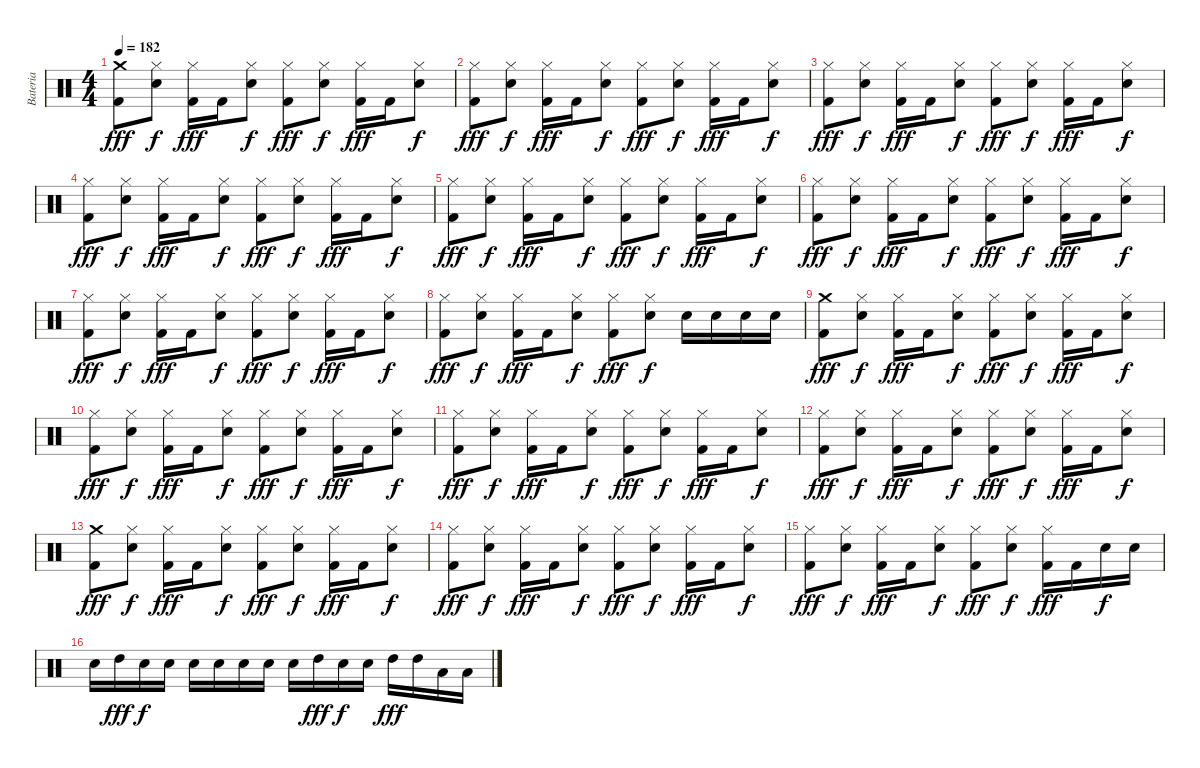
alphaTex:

\track ("Bateria" "Bateria") {instrument percussion}
\staff {score}
\articulation defaults
\ts (4 4)
\tempo 182
\clef neutral
\ks c
("Crash medium (hit)" "Kick (hit) 2").8{dy fff} ("Hi-Hat (closed)" "Electric Snare (hit)").8{dy f} ("Hi-Hat (closed)" "Kick (hit) 2").16{dy fff} "Kick (hit) 2".16 ("Hi-Hat (closed)" "Electric Snare (hit)").8{dy f} ("Hi-Hat (closed)" "Kick (hit) 2").8{dy fff} ("Hi-Hat (closed)" "Electric Snare (hit)").8{dy f} ("Hi-Hat (closed)" "Kick (hit) 2").16{dy fff} "Kick (hit) 2".16 ("Hi-Hat (closed)" "Electric Snare (hit)").8{dy f} |
("Hi-Hat (closed)" "Kick (hit) 2").8{dy fff} ("Hi-Hat (closed)" "Electric Snare (hit)").8{dy f} ("Hi-Hat (closed)" "Kick (hit) 2").16{dy fff} "Kick (hit) 2".16 ("Hi-Hat (closed)" "Electric Snare (hit)").8{dy f} ("Hi-Hat (closed)" "Kick (hit) 2").8{dy fff} ("Hi-Hat (closed)" "Electric Snare (hit)").8{dy f} ("Hi-Hat (closed)" "Kick (hit) 2").16{dy fff} "Kick (hit) 2".16 ("Hi-Hat (closed)" "Electric Snare (hit)").8{dy f} |
("Hi-Hat (closed)" "Kick (hit) 2").8{dy fff} ("Hi-Hat (closed)" "Electric Snare (hit)").8{dy f} ("Hi-Hat (closed)" "Kick (hit) 2").16{dy fff} "Kick (hit) 2".16 ("Hi-Hat (closed)" "Electric Snare (hit)").8{dy f} ("Hi-Hat (closed)" "Kick (hit) 2").8{dy fff} ("Hi-Hat (closed)" "Electric Snare (hit)").8{dy f} ("Hi-Hat (closed)" "Kick (hit) 2").16{dy fff} "Kick (hit) 2".16 ("Hi-Hat (closed)" "Electric Snare (hit)").8{dy f} |
("Hi-Hat (closed)" "Kick (hit) 2").8{dy fff} ("Hi-Hat (closed)" "Electric Snare (hit)").8{dy f} ("Hi-Hat (closed)" "Kick (hit) 2").16{dy fff} "Kick (hit) 2".16 ("Hi-Hat (closed)" "Electric Snare (hit)").8{dy f} ("Hi-Hat (closed)" "Kick (hit) 2").8{dy fff} ("Hi-Hat (closed)" "Electric Snare (hit)").8{dy f} ("Hi-Hat (closed)" "Kick (hit) 2").16{dy fff} "Kick (hit) 2".16 ("Hi-Hat (closed)" "Electric Snare (hit)").8{dy f} |
("Hi-Hat (closed)" "Kick (hit) 2").8{dy fff} ("Hi-Hat (closed)" "Electric Snare (hit)").8{dy f} ("Hi-Hat (closed)" "Kick (hit) 2").16{dy fff} "Kick (hit) 2".16 ("Hi-Hat (closed)" "Electric Snare (hit)").8{dy f} ("Hi-Hat (closed)" "Kick (hit) 2").8{dy fff} ("Hi-Hat (closed)" "Electric Snare (hit)").8{dy f} ("Hi-Hat (closed)" "Kick (hit) 2").16{dy fff} "Kick (hit) 2".16 ("Hi-Hat (closed)" "Electric Snare (hit)").8{dy f} |
("Hi-Hat (closed)" "Kick (hit) 2").8{dy fff} ("Hi-Hat (closed)" "Electric Snare (hit)").8{dy f} ("Hi-Hat (closed)" "Kick (hit) 2").16{dy fff} "Kick (hit) 2".16 ("Hi-Hat (closed)" "Electric Snare (hit)").8{dy f} ("Hi-Hat (closed)" "Kick (hit) 2").8{dy fff} ("Hi-Hat (closed)" "Electric Snare (hit)").8{dy f} ("Hi-Hat (closed)" "Kick (hit) 2").16{dy fff} "Kick (hit) 2".16 ("Hi-Hat (closed)" "Electric Snare (hit)").8{dy f} |
("Hi-Hat (closed)" "Kick (hit) 2").8{dy fff} ("Hi-Hat (closed)" "Electric Snare (hit)").8{dy f} ("Hi-Hat (closed)" "Kick (hit) 2").16{dy fff} "Kick (hit) 2".16 ("Hi-Hat (closed)" "Electric Snare (hit)").8{dy f} ("Hi-Hat (closed)" "Kick (hit) 2").8{dy fff} ("Hi-Hat (closed)" "Electric Snare (hit)").8{dy f} ("Hi-Hat (closed)" "Kick (hit) 2").16{dy fff} "Kick (hit) 2".16 ("Hi-Hat (closed)" "Electric Snare (hit)").8{dy f} |
("Hi-Hat (closed)" "Kick (hit) 2").8{dy fff} ("Hi-Hat (closed)" "Electric Snare (hit)").8{dy f} ("Hi-Hat (closed)" "Kick (hit) 2").16{dy fff} "Kick (hit) 2".16 ("Hi-Hat (closed)" "Electric Snare (hit)").8{dy f} ("Hi-Hat (closed)" "Kick (hit) 2").8{dy fff} ("Hi-Hat (closed)" "Electric Snare (hit)").8{dy f} "Electric Snare (hit)".16 "Electric Snare (hit)".16 "Electric Snare (hit)".16 "Electric Snare (hit)".16 |
("Crash medium (hit)" "Kick (hit) 2").8{dy fff} ("Hi-Hat (closed)" "Electric Snare (hit)").8{dy f} ("Hi-Hat (closed)" "Kick (hit) 2").16{dy fff} "Kick (hit) 2".16 ("Hi-Hat (closed)" "Electric Snare (hit)").8{dy f} ("Hi-Hat (closed)" "Kick (hit) 2").8{dy fff} ("Hi-Hat (closed)" "Electric Snare (hit)").8{dy f} ("Hi-Hat (closed)" "Kick (hit) 2").16{dy fff} "Kick (hit) 2".16 ("Hi-Hat (closed)" "Electric Snare (hit)").8{dy f} |
("Hi-Hat (closed)" "Kick (hit) 2").8{dy fff} ("Hi-Hat (closed)" "Electric Snare (hit)").8{dy f} ("Hi-Hat (closed)" "Kick (hit) 2").16{dy fff} "Kick (hit) 2".16 ("Hi-Hat (closed)" "Electric Snare (hit)").8{dy f} ("Hi-Hat (closed)" "Kick (hit) 2").8{dy fff} ("Hi-Hat (closed)" "Electric Snare (hit)").8{dy f} ("Hi-Hat (closed)" "Kick (hit) 2").16{dy fff} "Kick (hit) 2".16 ("Hi-Hat (closed)" "Electric Snare (hit)").8{dy f} |
("Hi-Hat (closed)" "Kick (hit) 2").8{dy fff} ("Hi-Hat (closed)" "Electric Snare (hit)").8{dy f} ("Hi-Hat (closed)" "Kick (hit) 2").16{dy fff} "Kick (hit) 2".16 ("Hi-Hat (closed)" "Electric Snare (hit)").8{dy f} ("Hi-Hat (closed)" "Kick (hit) 2").8{dy fff} ("Hi-Hat (closed)" "Electric Snare (hit)").8{dy f} ("Hi-Hat (closed)" "Kick (hit) 2").16{dy fff} "Kick (hit) 2".16 ("Hi-Hat (closed)" "Electric Snare (hit)").8{dy f} |
("Hi-Hat (closed)" "Kick (hit) 2").8{dy fff} ("Hi-Hat (closed)" "Electric Snare (hit)").8{dy f} ("Hi-Hat (closed)" "Kick (hit) 2").16{dy fff} "Kick (hit) 2".16 ("Hi-Hat (closed)" "Electric Snare (hit)").8{dy f} ("Hi-Hat (closed)" "Kick (hit) 2").8{dy fff} ("Hi-Hat (closed)" "Electric Snare (hit)").8{dy f} ("Hi-Hat (closed)" "Kick (hit) 2").16{dy fff} "Kick (hit) 2".16 ("Hi-Hat (closed)" "Electric Snare (hit)").8{dy f} |
("Crash medium (hit)" "Kick (hit) 2").8{dy fff} ("Hi-Hat (closed)" "Electric Snare (hit)").8{dy f} ("Hi-Hat (closed)" "Kick (hit) 2").16{dy fff} "Kick (hit) 2".16 ("Hi-Hat (closed)" "Electric Snare (hit)").8{dy f} ("Hi-Hat (closed)" "Kick (hit) 2").8{dy fff} ("Hi-Hat (closed)" "Electric Snare (hit)").8{dy f} ("Hi-Hat (closed)" "Kick (hit) 2").16{dy fff} "Kick (hit) 2".16 ("Hi-Hat (closed)" "Electric Snare (hit)").8{dy f} |
("Hi-Hat (closed)" "Kick (hit) 2").8{dy fff} ("Hi-Hat (closed)" "Electric Snare (hit)").8{dy f} ("Hi-Hat (closed)" "Kick (hit) 2").16{dy fff} "Kick (hit) 2".16 ("Hi-Hat (closed)" "Electric Snare (hit)").8{dy f} ("Hi-Hat (closed)" "Kick (hit) 2").8{dy fff} ("Hi-Hat (closed)" "Electric Snare (hit)").8{dy f} ("Hi-Hat (closed)" "Kick (hit) 2").16{dy fff} "Kick (hit) 2".16 ("Hi-Hat (closed)" "Electric Snare (hit)").8{dy f} |
("Hi-Hat (closed)" "Kick (hit) 2").8{dy fff} ("Hi-Hat (closed)" "Electric Snare (hit)").8{dy f} ("Hi-Hat (closed)" "Kick (hit) 2").16{dy fff} "Kick (hit) 2".16 ("Hi-Hat (closed)" "Electric Snare (hit)").8{dy f} ("Hi-Hat (closed)" "Kick (hit) 2").8{dy fff} ("Hi-Hat (closed)" "Electric Snare (hit)").8{dy f} ("Hi-Hat (closed)" "Kick (hit) 2").16{dy fff} "Kick (hit) 2".16 "Electric Snare (hit)".16{dy f} "Electric Snare (hit)".16 |
"Electric Snare (hit)".16 "High Tom (hit)".16{dy fff} "Electric Snare (hit)".16{dy f} "Electric Snare (hit)".16 "Electric Snare (hit)".16 "Electric Snare (hit)".16 "Electric Snare (hit)".16 "Electric Snare (hit)".16 "Electric Snare (hit)".16 "High Tom (hit)".16{dy fff} "Electric Snare (hit)".16{dy f} "Electric Snare (hit)".16 "High Tom (hit)".16{dy fff} "High Tom (hit)".16 "Low Tom (hit)".16 "Low Tom (hit)".16
